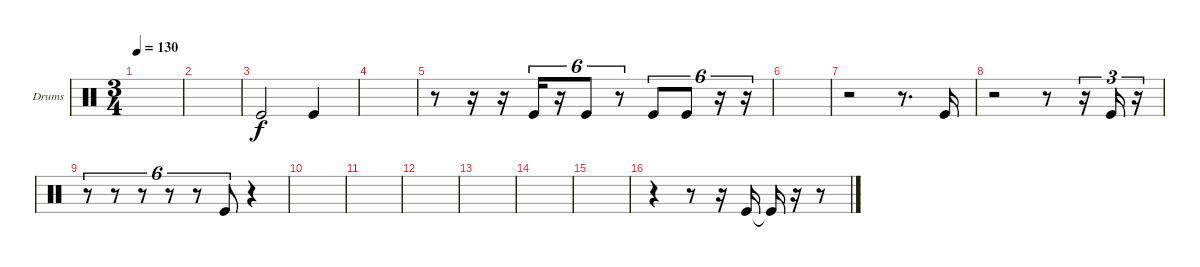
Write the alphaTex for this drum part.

\bracketExtendMode groupsimilarinstruments
\firstSystemTrackNameOrientation horizontal
\otherSystemsTrackNameOrientation horizontal
\track ("Kick" "Drums") {instrument percussion}
\staff {score}
\articulation defaults
\ts (3 4)
\tempo 130
\clef neutral
\ks c
|
|
"Kick (hit)".2 "Kick (hit)".4 |
|
r.8 r.16 r.16 "Kick (hit)".16{tu (6 4)} r.16{tu (6 4)} "Kick (hit)".8{tu (6 4)} r.8{tu (6 4)} "Kick (hit)".8{tu (6 4)} "Kick (hit)".8{tu (6 4)} r.16{tu (6 4)} r.16{tu (6 4)} |
|
r.2 r.8{d} "Kick (hit)".16 |
r.2 r.8 r.16{tu (3 2)} "Kick (hit)".16{tu (3 2)} r.16{tu (3 2)} |
r.8{tu (6 4)} r.8{tu (6 4)} r.8{tu (6 4)} r.8{tu (6 4)} r.8{tu (6 4)} "Kick (hit)".8{tu (6 4)} r.4 |
|
|
|
|
|
|
r.4 r.8 r.16 "Kick (hit)".16 "Kick (hit)"{t}.16 r.16 r.8
